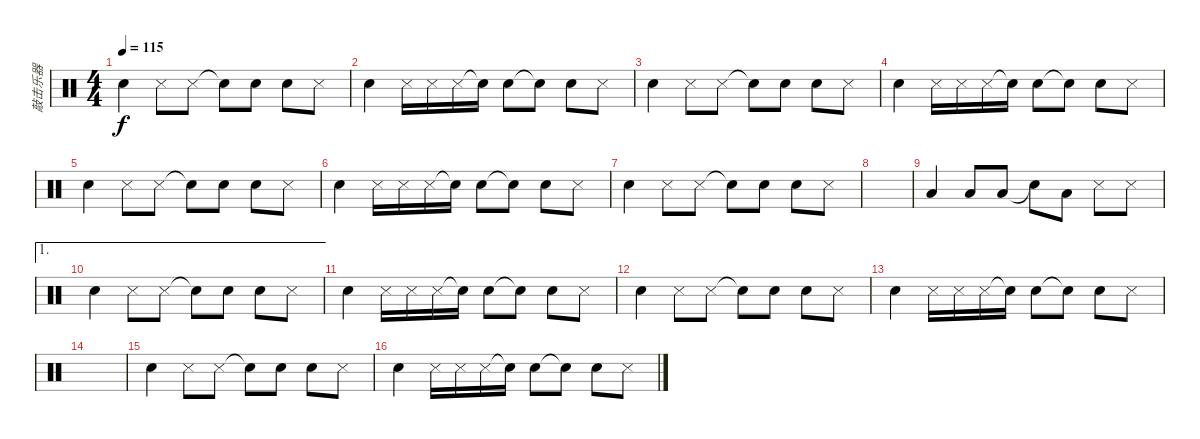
\track ("敲击乐器" "敲击乐器") {instrument percussion}
\staff {score}
\articulation defaults
\ts (4 4)
\tempo 115
\clef neutral
\ks c "Hand Clap (hit)".4{dy f} "Snare (side stick) 3".8 "Snare (side stick) 3".8 "Snare (hit)"{t}.8 "Hand Clap (hit)".8 "Hand Clap (hit)".8 "Snare (side stick) 3".8
|
"Hand Clap (hit)".4 "Snare (side stick) 3".16 "Snare (side stick) 3".16 "Snare (side stick) 3".16 "Snare (hit)"{t}.16 "Hand Clap (hit)".8 "Snare (hit)"{t}.8 "Hand Clap (hit)".8 "Snare (side stick) 3".8 |
"Hand Clap (hit)".4 "Snare (side stick) 3".8 "Snare (side stick) 3".8 "Snare (hit)"{t}.8 "Hand Clap (hit)".8 "Hand Clap (hit)".8 "Snare (side stick) 3".8 |
"Hand Clap (hit)".4 "Snare (side stick) 3".16 "Snare (side stick) 3".16 "Snare (side stick) 3".16 "Snare (hit)"{t}.16 "Hand Clap (hit)".8 "Snare (hit)"{t}.8 "Hand Clap (hit)".8 "Snare (side stick) 3".8 |
"Hand Clap (hit)".4 "Snare (side stick) 3".8 "Snare (side stick) 3".8 "Snare (hit)"{t}.8 "Hand Clap (hit)".8 "Hand Clap (hit)".8 "Snare (side stick) 3".8 |
"Hand Clap (hit)".4 "Snare (side stick) 3".16 "Snare (side stick) 3".16 "Snare (side stick) 3".16 "Snare (hit)"{t}.16 "Hand Clap (hit)".8 "Snare (hit)"{t}.8 "Hand Clap (hit)".8 "Snare (side stick) 3".8 |
"Hand Clap (hit)".4 "Snare (side stick) 3".8 "Snare (side stick) 3".8 "Snare (hit)"{t}.8 "Hand Clap (hit)".8 "Hand Clap (hit)".8 "Snare (side stick) 3".8 |
|
"Low Floor Tom (hit)".4 "Low Floor Tom (hit)".8 "Low Floor Tom (hit)".8 "Snare (hit)"{t}.8 "Low Floor Tom (hit)".8 "Snare (side stick) 3".8 "Snare (side stick) 3".8 |
\ae 1 "Hand Clap (hit)".4 "Snare (side stick) 3".8 "Snare (side stick) 3".8 "Snare (hit)"{t}.8 "Hand Clap (hit)".8 "Hand Clap (hit)".8 "Snare (side stick) 3".8
|
"Hand Clap (hit)".4 "Snare (side stick) 3".16 "Snare (side stick) 3".16 "Snare (side stick) 3".16 "Snare (hit)"{t}.16 "Hand Clap (hit)".8 "Snare (hit)"{t}.8 "Hand Clap (hit)".8 "Snare (side stick) 3".8 |
"Hand Clap (hit)".4 "Snare (side stick) 3".8 "Snare (side stick) 3".8 "Snare (hit)"{t}.8 "Hand Clap (hit)".8 "Hand Clap (hit)".8 "Snare (side stick) 3".8 |
"Hand Clap (hit)".4 "Snare (side stick) 3".16 "Snare (side stick) 3".16 "Snare (side stick) 3".16 "Snare (hit)"{t}.16 "Hand Clap (hit)".8 "Snare (hit)"{t}.8 "Hand Clap (hit)".8 "Snare (side stick) 3".8 |
|
"Hand Clap (hit)".4 "Snare (side stick) 3".8 "Snare (side stick) 3".8 "Snare (hit)"{t}.8 "Hand Clap (hit)".8 "Hand Clap (hit)".8 "Snare (side stick) 3".8 |
"Hand Clap (hit)".4 "Snare (side stick) 3".16 "Snare (side stick) 3".16 "Snare (side stick) 3".16 "Snare (hit)"{t}.16 "Hand Clap (hit)".8 "Snare (hit)"{t}.8 "Hand Clap (hit)".8 "Snare (side stick) 3".8
